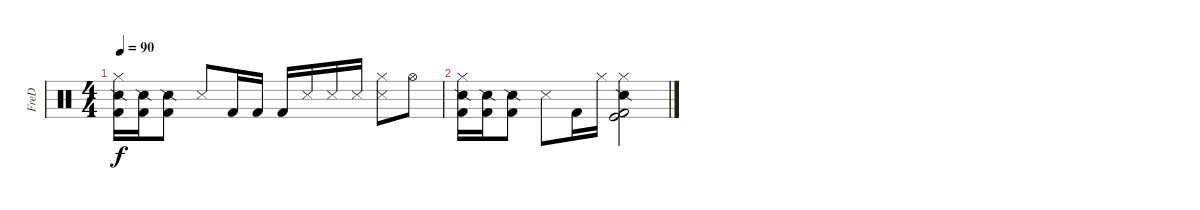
\track ("FreD" "FreD") {instrument percussion}
\staff {score}
\articulation defaults
\ts (4 4)
\tempo 90
\clef neutral
\ks c
("Hi-Hat (closed)" "Snare (side stick) 2" "Kick (hit) 2").16{dy f} ("Snare (side stick) 2" "Kick (hit) 2").16 ("Snare (side stick) 2" "Kick (hit) 2").8 "Metronome (hit)".8 "Kick (hit) 2".16 "Kick (hit) 2".16 "Kick (hit) 2".16 "Snare (side stick) 3".16 "Metronome (hit)".16 "Snare (side stick) 3".16 ("Hi-Hat (closed)" "Metronome (hit)").8 "Hi-Hat (open)".8 |
("Hi-Hat (closed)" "Snare (side stick) 2" "Kick (hit) 2").16 ("Snare (side stick) 2" "Kick (hit) 2").16 ("Snare (side stick) 2" "Kick (hit) 2").8 "Metronome (hit)".8 "Kick (hit) 2".16 "Hi-Hat (closed)".16 ("Hi-Hat (closed)" "Kick (hit)" "Snare (side stick) 2" "Kick (hit) 2").2
